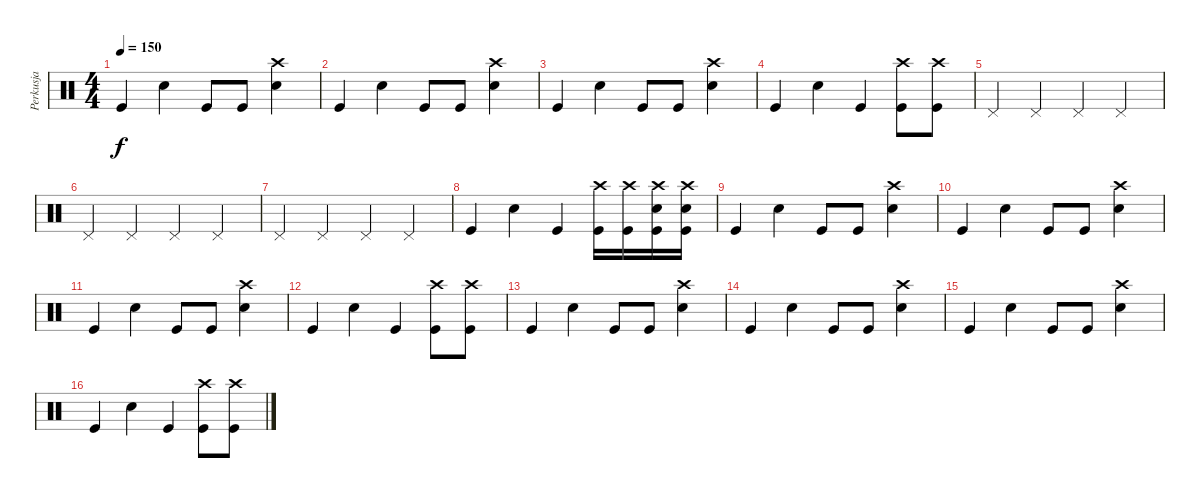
\track ("Perkusja" "Perkusja") {instrument percussion}
\staff {score}
\articulation defaults
\ts (4 4)
\tempo 150
\clef neutral
\ks c "Kick (hit)".4{dy f} "Electric Snare (hit)".4 "Kick (hit)".8 "Kick (hit)".8
("Crash high (hit)" "Electric Snare (hit)").4 |
"Kick (hit)".4 "Electric Snare (hit)".4 "Kick (hit)".8 "Kick (hit)".8 ("Crash high (hit)" "Electric Snare (hit)").4 |
"Kick (hit)".4 "Electric Snare (hit)".4 "Kick (hit)".8 "Kick (hit)".8 ("Crash high (hit)" "Electric Snare (hit)").4 |
"Kick (hit)".4 "Electric Snare (hit)".4 "Kick (hit)".4 ("Crash high (hit)" "Kick (hit)").8 ("Crash high (hit)" "Kick (hit)").8 |
"Pedal Hi-Hat (hit)".4 "Pedal Hi-Hat (hit)".4 "Pedal Hi-Hat (hit)".4 "Pedal Hi-Hat (hit)".4 |
"Pedal Hi-Hat (hit)".4 "Pedal Hi-Hat (hit)".4 "Pedal Hi-Hat (hit)".4 "Pedal Hi-Hat (hit)".4 |
"Pedal Hi-Hat (hit)".4 "Pedal Hi-Hat (hit)".4 "Pedal Hi-Hat (hit)".4 "Pedal Hi-Hat (hit)".4 |
"Kick (hit)".4 "Electric Snare (hit)".4 "Kick (hit)".4 ("Crash high (hit)" "Kick (hit)").16 ("Crash high (hit)" "Kick (hit)").16 ("Crash high (hit)" "Kick (hit)" "Electric Snare (hit)").16 ("Crash high (hit)" "Kick (hit)" "Electric Snare (hit)").16 |
"Kick (hit)".4 "Electric Snare (hit)".4 "Kick (hit)".8 "Kick (hit)".8 ("Crash high (hit)" "Electric Snare (hit)").4 |
"Kick (hit)".4 "Electric Snare (hit)".4 "Kick (hit)".8 "Kick (hit)".8 ("Crash high (hit)" "Electric Snare (hit)").4 |
"Kick (hit)".4 "Electric Snare (hit)".4 "Kick (hit)".8 "Kick (hit)".8 ("Crash high (hit)" "Electric Snare (hit)").4 |
"Kick (hit)".4 "Electric Snare (hit)".4 "Kick (hit)".4 ("Crash high (hit)" "Kick (hit)").8 ("Crash high (hit)" "Kick (hit)").8 |
"Kick (hit)".4 "Electric Snare (hit)".4 "Kick (hit)".8 "Kick (hit)".8 ("Crash high (hit)" "Electric Snare (hit)").4 |
"Kick (hit)".4 "Electric Snare (hit)".4 "Kick (hit)".8 "Kick (hit)".8 ("Crash high (hit)" "Electric Snare (hit)").4 |
"Kick (hit)".4 "Electric Snare (hit)".4 "Kick (hit)".8 "Kick (hit)".8 ("Crash high (hit)" "Electric Snare (hit)").4 |
"Kick (hit)".4 "Electric Snare (hit)".4 "Kick (hit)".4 ("Crash high (hit)" "Kick (hit)").8 ("Crash high (hit)" "Kick (hit)").8
